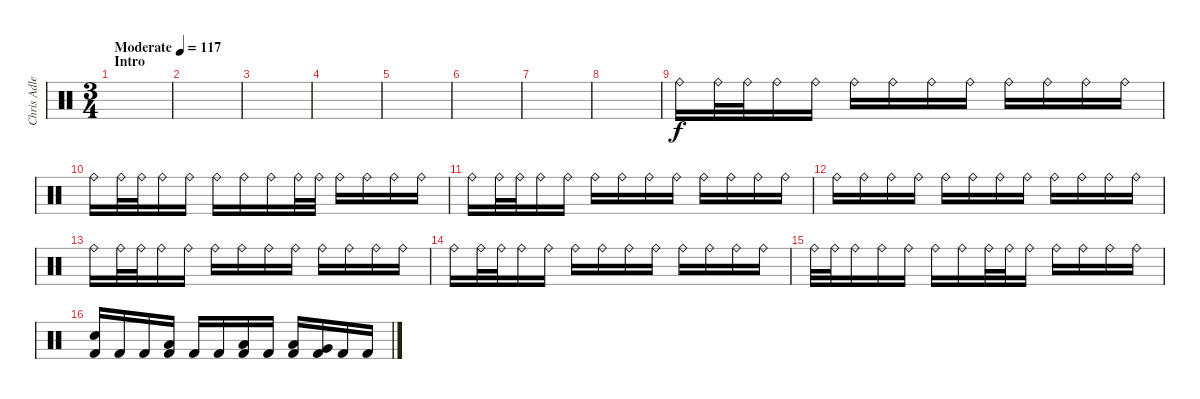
\track ("Chris Adler" "Chris Adle") {instrument percussion}
\staff {score}
\articulation defaults
\ts (3 4)
\section ("" "Intro")
\tempo (117 "Moderate")
\clef neutral
\ks c
|
|
|
|
|
|
|
|
"Ride (bell)".16 "Ride (bell)".32 "Ride (bell)".32 "Ride (bell)".16 "Ride (bell)".16 "Ride (bell)".16 "Ride (bell)".16 "Ride (bell)".16 "Ride (bell)".16 "Ride (bell)".16 "Ride (bell)".16 "Ride (bell)".16 "Ride (bell)".16 |
"Ride (bell)".16 "Ride (bell)".32 "Ride (bell)".32 "Ride (bell)".16 "Ride (bell)".16 "Ride (bell)".16 "Ride (bell)".16 "Ride (bell)".16 "Ride (bell)".32 "Ride (bell)".32 "Ride (bell)".16 "Ride (bell)".16 "Ride (bell)".16 "Ride (bell)".16 |
"Ride (bell)".16 "Ride (bell)".32 "Ride (bell)".32 "Ride (bell)".16 "Ride (bell)".16 "Ride (bell)".16 "Ride (bell)".16 "Ride (bell)".16 "Ride (bell)".16 "Ride (bell)".16 "Ride (bell)".16 "Ride (bell)".16 "Ride (bell)".16 |
"Ride (bell)".16 "Ride (bell)".16 "Ride (bell)".16 "Ride (bell)".16 "Ride (bell)".16 "Ride (bell)".16 "Ride (bell)".16 "Ride (bell)".16 "Ride (bell)".16 "Ride (bell)".16 "Ride (bell)".16 "Ride (bell)".16 |
"Ride (bell)".16 "Ride (bell)".32 "Ride (bell)".32 "Ride (bell)".16 "Ride (bell)".16 "Ride (bell)".16 "Ride (bell)".16 "Ride (bell)".16 "Ride (bell)".16 "Ride (bell)".16 "Ride (bell)".16 "Ride (bell)".16 "Ride (bell)".16 |
"Ride (bell)".16 "Ride (bell)".32 "Ride (bell)".32 "Ride (bell)".16 "Ride (bell)".16 "Ride (bell)".16 "Ride (bell)".16 "Ride (bell)".16 "Ride (bell)".16 "Ride (bell)".16 "Ride (bell)".16 "Ride (bell)".16 "Ride (bell)".16 |
"Ride (bell)".32 "Ride (bell)".32 "Ride (bell)".16 "Ride (bell)".16 "Ride (bell)".16 "Ride (bell)".16 "Ride (bell)".16 "Ride (bell)".32 "Ride (bell)".32 "Ride (bell)".16 "Ride (bell)".16 "Ride (bell)".16 "Ride (bell)".16 "Ride (bell)".16 |
("Electric Snare (hit)" "Kick (hit) 2").16 "Kick (hit) 2".16 "Kick (hit) 2".16 ("Low Tom (hit)" "Kick (hit) 2").16 "Kick (hit) 2".16 "Kick (hit) 2".16 ("Low Floor Tom (hit)" "Kick (hit) 2").16 "Kick (hit) 2".16 ("Low Floor Tom (hit)" "Kick (hit) 2").16 ("Very Low Tom (hit)" "Kick (hit) 2").16 "Kick (hit) 2".16 "Kick (hit) 2".16
